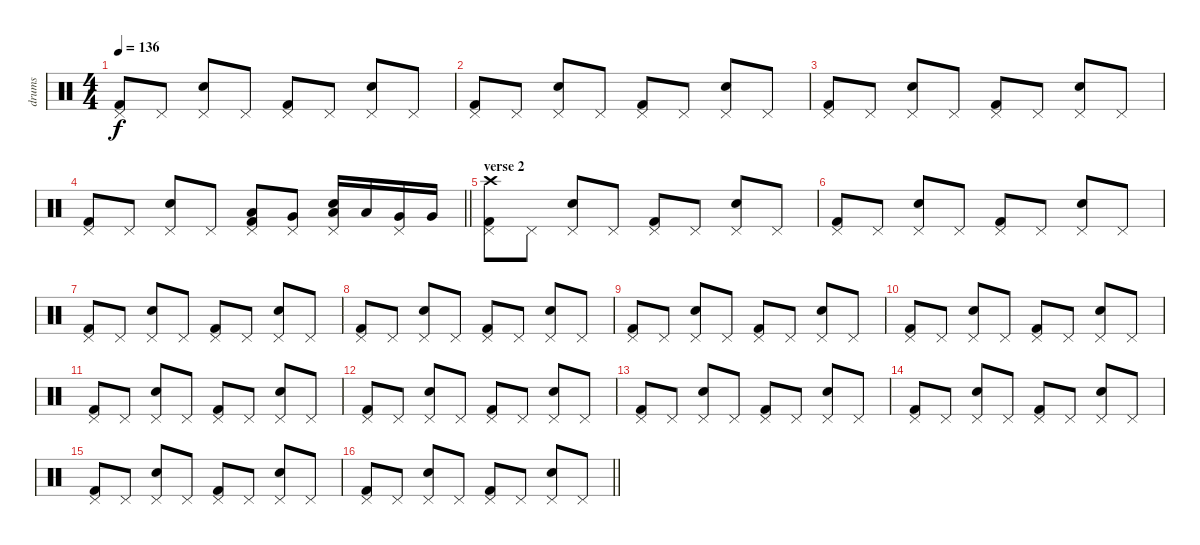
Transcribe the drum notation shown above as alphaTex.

\track ("drums" "drums") {instrument percussion}
\staff {score}
\articulation defaults
\ts (4 4)
\tempo 136
\clef neutral
\ks c
("Kick (hit) 2" "Pedal Hi-Hat (hit)").8{dy f} "Pedal Hi-Hat (hit)".8 ("Electric Snare (hit)" "Pedal Hi-Hat (hit)").8 "Pedal Hi-Hat (hit)".8 ("Kick (hit) 2" "Pedal Hi-Hat (hit)").8 "Pedal Hi-Hat (hit)".8 ("Electric Snare (hit)" "Pedal Hi-Hat (hit)").8 "Pedal Hi-Hat (hit)".8 |
("Kick (hit) 2" "Pedal Hi-Hat (hit)").8 "Pedal Hi-Hat (hit)".8 ("Electric Snare (hit)" "Pedal Hi-Hat (hit)").8 "Pedal Hi-Hat (hit)".8 ("Kick (hit) 2" "Pedal Hi-Hat (hit)").8 "Pedal Hi-Hat (hit)".8 ("Electric Snare (hit)" "Pedal Hi-Hat (hit)").8 "Pedal Hi-Hat (hit)".8 |
("Kick (hit) 2" "Pedal Hi-Hat (hit)").8 "Pedal Hi-Hat (hit)".8 ("Electric Snare (hit)" "Pedal Hi-Hat (hit)").8 "Pedal Hi-Hat (hit)".8 ("Kick (hit) 2" "Pedal Hi-Hat (hit)").8 "Pedal Hi-Hat (hit)".8 ("Electric Snare (hit)" "Pedal Hi-Hat (hit)").8 "Pedal Hi-Hat (hit)".8 |
\barLineRight lightlight
("Kick (hit) 2" "Pedal Hi-Hat (hit)").8 "Pedal Hi-Hat (hit)".8 ("Electric Snare (hit)" "Pedal Hi-Hat (hit)").8 "Pedal Hi-Hat (hit)".8 ("Kick (hit) 2" "Pedal Hi-Hat (hit)" "Low Tom (hit)").8 ("Pedal Hi-Hat (hit)" "Very Low Tom (hit)").8 ("Electric Snare (hit)" "Pedal Hi-Hat (hit)" "Low Tom (hit)").16 "Low Tom (hit)".16 ("Pedal Hi-Hat (hit)" "Very Low Tom (hit)").16 "Very Low Tom (hit)".16 |
\section ("" "verse 2")
("Kick (hit) 2" "Pedal Hi-Hat (hit)" "Crash high (hit)").8 "Pedal Hi-Hat (hit)".8 ("Electric Snare (hit)" "Pedal Hi-Hat (hit)").8 "Pedal Hi-Hat (hit)".8 ("Kick (hit) 2" "Pedal Hi-Hat (hit)").8 "Pedal Hi-Hat (hit)".8 ("Electric Snare (hit)" "Pedal Hi-Hat (hit)").8 "Pedal Hi-Hat (hit)".8 |
("Kick (hit) 2" "Pedal Hi-Hat (hit)").8 "Pedal Hi-Hat (hit)".8 ("Electric Snare (hit)" "Pedal Hi-Hat (hit)").8 "Pedal Hi-Hat (hit)".8 ("Kick (hit) 2" "Pedal Hi-Hat (hit)").8 "Pedal Hi-Hat (hit)".8 ("Electric Snare (hit)" "Pedal Hi-Hat (hit)").8 "Pedal Hi-Hat (hit)".8 |
("Kick (hit) 2" "Pedal Hi-Hat (hit)").8 "Pedal Hi-Hat (hit)".8 ("Electric Snare (hit)" "Pedal Hi-Hat (hit)").8 "Pedal Hi-Hat (hit)".8 ("Kick (hit) 2" "Pedal Hi-Hat (hit)").8 "Pedal Hi-Hat (hit)".8 ("Electric Snare (hit)" "Pedal Hi-Hat (hit)").8 "Pedal Hi-Hat (hit)".8 |
("Kick (hit) 2" "Pedal Hi-Hat (hit)").8 "Pedal Hi-Hat (hit)".8 ("Electric Snare (hit)" "Pedal Hi-Hat (hit)").8 "Pedal Hi-Hat (hit)".8 ("Kick (hit) 2" "Pedal Hi-Hat (hit)").8 "Pedal Hi-Hat (hit)".8 ("Electric Snare (hit)" "Pedal Hi-Hat (hit)").8 "Pedal Hi-Hat (hit)".8 |
("Kick (hit) 2" "Pedal Hi-Hat (hit)").8 "Pedal Hi-Hat (hit)".8 ("Electric Snare (hit)" "Pedal Hi-Hat (hit)").8 "Pedal Hi-Hat (hit)".8 ("Kick (hit) 2" "Pedal Hi-Hat (hit)").8 "Pedal Hi-Hat (hit)".8 ("Electric Snare (hit)" "Pedal Hi-Hat (hit)").8 "Pedal Hi-Hat (hit)".8 |
("Kick (hit) 2" "Pedal Hi-Hat (hit)").8 "Pedal Hi-Hat (hit)".8 ("Electric Snare (hit)" "Pedal Hi-Hat (hit)").8 "Pedal Hi-Hat (hit)".8 ("Kick (hit) 2" "Pedal Hi-Hat (hit)").8 "Pedal Hi-Hat (hit)".8 ("Electric Snare (hit)" "Pedal Hi-Hat (hit)").8 "Pedal Hi-Hat (hit)".8 |
("Kick (hit) 2" "Pedal Hi-Hat (hit)").8 "Pedal Hi-Hat (hit)".8 ("Electric Snare (hit)" "Pedal Hi-Hat (hit)").8 "Pedal Hi-Hat (hit)".8 ("Kick (hit) 2" "Pedal Hi-Hat (hit)").8 "Pedal Hi-Hat (hit)".8 ("Electric Snare (hit)" "Pedal Hi-Hat (hit)").8 "Pedal Hi-Hat (hit)".8 |
("Kick (hit) 2" "Pedal Hi-Hat (hit)").8 "Pedal Hi-Hat (hit)".8 ("Electric Snare (hit)" "Pedal Hi-Hat (hit)").8 "Pedal Hi-Hat (hit)".8 ("Kick (hit) 2" "Pedal Hi-Hat (hit)").8 "Pedal Hi-Hat (hit)".8 ("Electric Snare (hit)" "Pedal Hi-Hat (hit)").8 "Pedal Hi-Hat (hit)".8 |
("Kick (hit) 2" "Pedal Hi-Hat (hit)").8 "Pedal Hi-Hat (hit)".8 ("Electric Snare (hit)" "Pedal Hi-Hat (hit)").8 "Pedal Hi-Hat (hit)".8 ("Kick (hit) 2" "Pedal Hi-Hat (hit)").8 "Pedal Hi-Hat (hit)".8 ("Electric Snare (hit)" "Pedal Hi-Hat (hit)").8 "Pedal Hi-Hat (hit)".8 |
("Kick (hit) 2" "Pedal Hi-Hat (hit)").8 "Pedal Hi-Hat (hit)".8 ("Electric Snare (hit)" "Pedal Hi-Hat (hit)").8 "Pedal Hi-Hat (hit)".8 ("Kick (hit) 2" "Pedal Hi-Hat (hit)").8 "Pedal Hi-Hat (hit)".8 ("Electric Snare (hit)" "Pedal Hi-Hat (hit)").8 "Pedal Hi-Hat (hit)".8 |
("Kick (hit) 2" "Pedal Hi-Hat (hit)").8 "Pedal Hi-Hat (hit)".8 ("Electric Snare (hit)" "Pedal Hi-Hat (hit)").8 "Pedal Hi-Hat (hit)".8 ("Kick (hit) 2" "Pedal Hi-Hat (hit)").8 "Pedal Hi-Hat (hit)".8 ("Electric Snare (hit)" "Pedal Hi-Hat (hit)").8 "Pedal Hi-Hat (hit)".8 |
\barLineRight lightlight
("Kick (hit) 2" "Pedal Hi-Hat (hit)").8 "Pedal Hi-Hat (hit)".8 ("Electric Snare (hit)" "Pedal Hi-Hat (hit)").8 "Pedal Hi-Hat (hit)".8 ("Kick (hit) 2" "Pedal Hi-Hat (hit)").8 "Pedal Hi-Hat (hit)".8 ("Electric Snare (hit)" "Pedal Hi-Hat (hit)").8 "Pedal Hi-Hat (hit)".8
